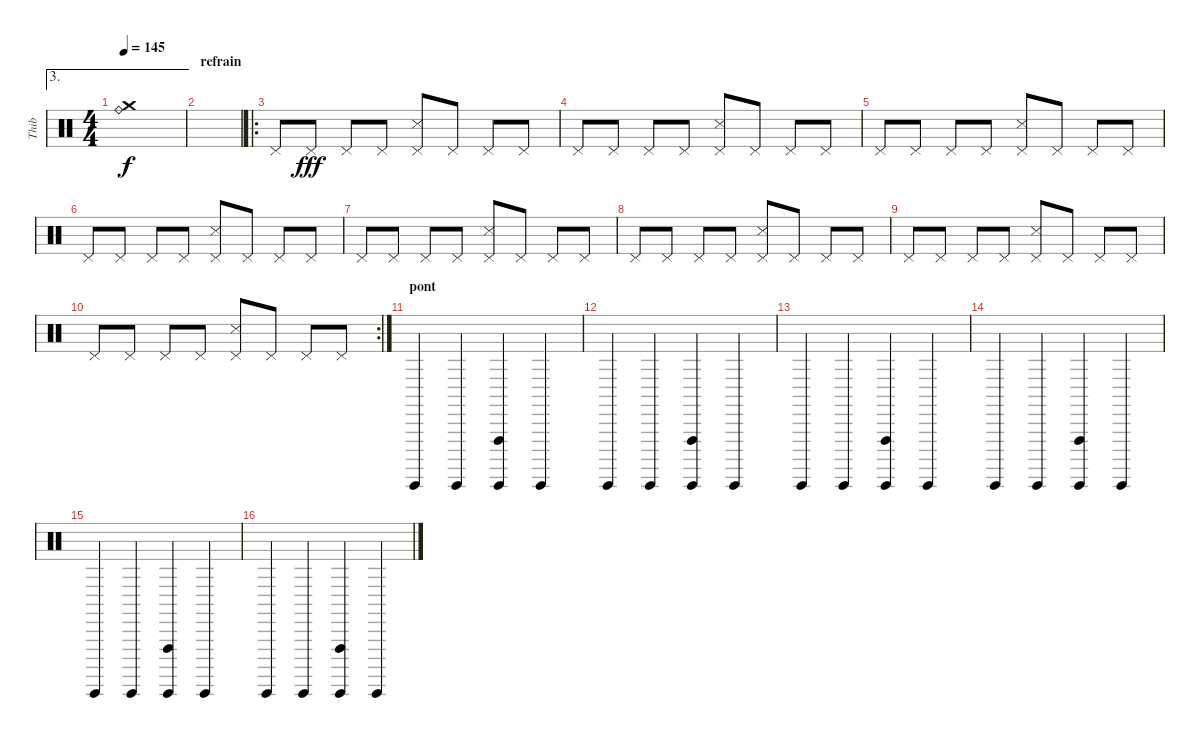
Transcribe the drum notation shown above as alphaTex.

\track ("Thib" "Thib") {instrument percussion}
\staff {score}
\articulation defaults
\ae 3
\ts (4 4)
\tempo 145
\clef neutral
\ks c
("Ride (bell)" "Crash medium (hit)").1{dy f} |
\section ("" "refrain")
|
\ro "Pedal Hi-Hat (hit)".8 "Pedal Hi-Hat (hit)".8{dy fff} "Pedal Hi-Hat (hit)".8 "Pedal Hi-Hat (hit)".8
("Snare (side stick) 3" "Pedal Hi-Hat (hit)").8 "Pedal Hi-Hat (hit)".8 "Pedal Hi-Hat (hit)".8 "Pedal Hi-Hat (hit)".8 |
"Pedal Hi-Hat (hit)".8 "Pedal Hi-Hat (hit)".8 "Pedal Hi-Hat (hit)".8 "Pedal Hi-Hat (hit)".8 ("Snare (side stick) 3" "Pedal Hi-Hat (hit)").8 "Pedal Hi-Hat (hit)".8 "Pedal Hi-Hat (hit)".8 "Pedal Hi-Hat (hit)".8 |
"Pedal Hi-Hat (hit)".8 "Pedal Hi-Hat (hit)".8 "Pedal Hi-Hat (hit)".8 "Pedal Hi-Hat (hit)".8 ("Snare (side stick) 3" "Pedal Hi-Hat (hit)").8 "Pedal Hi-Hat (hit)".8 "Pedal Hi-Hat (hit)".8 "Pedal Hi-Hat (hit)".8 |
"Pedal Hi-Hat (hit)".8 "Pedal Hi-Hat (hit)".8 "Pedal Hi-Hat (hit)".8 "Pedal Hi-Hat (hit)".8 ("Snare (side stick) 3" "Pedal Hi-Hat (hit)").8 "Pedal Hi-Hat (hit)".8 "Pedal Hi-Hat (hit)".8 "Pedal Hi-Hat (hit)".8 |
"Pedal Hi-Hat (hit)".8 "Pedal Hi-Hat (hit)".8 "Pedal Hi-Hat (hit)".8 "Pedal Hi-Hat (hit)".8 ("Snare (side stick) 3" "Pedal Hi-Hat (hit)").8 "Pedal Hi-Hat (hit)".8 "Pedal Hi-Hat (hit)".8 "Pedal Hi-Hat (hit)".8 |
"Pedal Hi-Hat (hit)".8 "Pedal Hi-Hat (hit)".8 "Pedal Hi-Hat (hit)".8 "Pedal Hi-Hat (hit)".8 ("Snare (side stick) 3" "Pedal Hi-Hat (hit)").8 "Pedal Hi-Hat (hit)".8 "Pedal Hi-Hat (hit)".8 "Pedal Hi-Hat (hit)".8 |
"Pedal Hi-Hat (hit)".8 "Pedal Hi-Hat (hit)".8 "Pedal Hi-Hat (hit)".8 "Pedal Hi-Hat (hit)".8 ("Snare (side stick) 3" "Pedal Hi-Hat (hit)").8 "Pedal Hi-Hat (hit)".8 "Pedal Hi-Hat (hit)".8 "Pedal Hi-Hat (hit)".8 |
\rc 2 "Pedal Hi-Hat (hit)".8 "Pedal Hi-Hat (hit)".8 "Pedal Hi-Hat (hit)".8 "Pedal Hi-Hat (hit)".8
("Snare (side stick) 3" "Pedal Hi-Hat (hit)").8 "Pedal Hi-Hat (hit)".8 "Pedal Hi-Hat (hit)".8 "Pedal Hi-Hat (hit)".8 |
\section ("" "pont")
"Guiro (hit)".4 "Guiro (hit)".4 ("Guiro (hit)" "Vibraslap (hit)").4 "Guiro (hit)".4 |
"Guiro (hit)".4 "Guiro (hit)".4 ("Guiro (hit)" "Vibraslap (hit)").4 "Guiro (hit)".4 |
"Guiro (hit)".4 "Guiro (hit)".4 ("Guiro (hit)" "Vibraslap (hit)").4 "Guiro (hit)".4 |
"Guiro (hit)".4 "Guiro (hit)".4 ("Guiro (hit)" "Vibraslap (hit)").4 "Guiro (hit)".4 |
"Guiro (hit)".4 "Guiro (hit)".4 ("Guiro (hit)" "Vibraslap (hit)").4 "Guiro (hit)".4 |
"Guiro (hit)".4 "Guiro (hit)".4 ("Guiro (hit)" "Vibraslap (hit)").4 "Guiro (hit)".4
